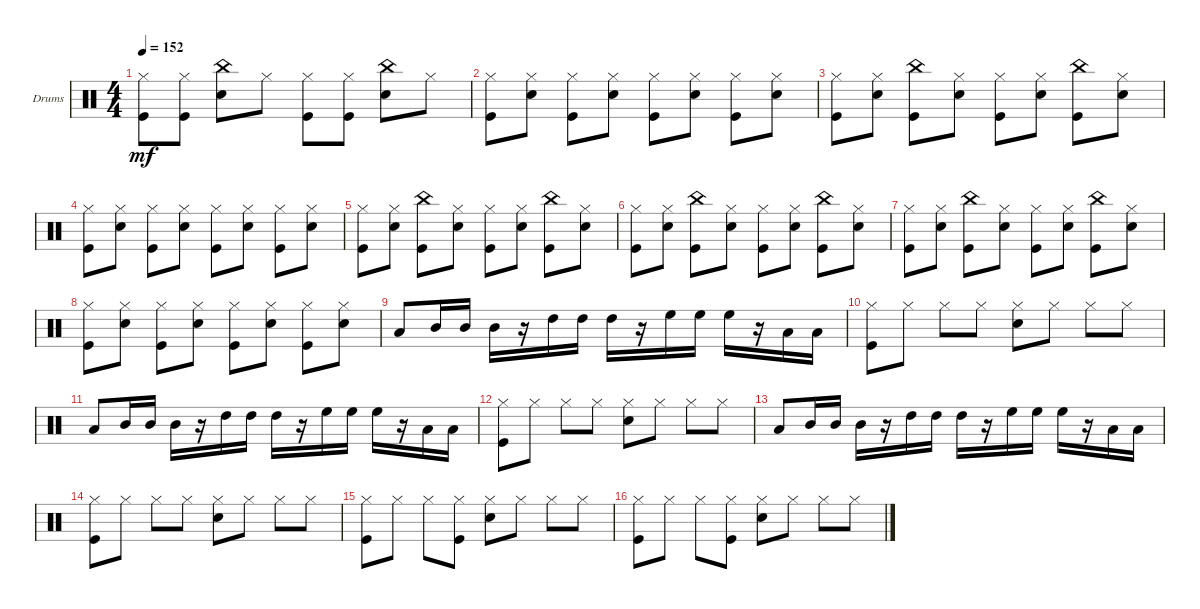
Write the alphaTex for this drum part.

\defaultSystemsLayout 4
\bracketExtendMode groupsimilarinstruments
\firstSystemTrackNameOrientation horizontal
\otherSystemsTrackNameOrientation horizontal
\track ("Drumkit" "Drums") {instrument percussion}
\staff {score}
\articulation defaults
\ts (4 4)
\tempo 152
\clef neutral
\ks c
("Kick (hit)" "Hi-Hat (closed)").8{dy mf} ("Hi-Hat (closed)" "Kick (hit)").8 ("Snare (hit) 2" "China (hit)").8 "Hi-Hat (closed)".8 ("Hi-Hat (closed)" "Kick (hit)").8 ("Hi-Hat (closed)" "Kick (hit)").8 ("Snare (hit) 2" "China (hit)").8 "Hi-Hat (closed)".8 |
("Kick (hit)" "Hi-Hat (closed)").8 ("Snare (hit) 2" "Hi-Hat (closed)").8 ("Hi-Hat (closed)" "Kick (hit)").8 ("Hi-Hat (closed)" "Snare (hit) 2").8 ("Hi-Hat (closed)" "Kick (hit)").8 ("Hi-Hat (closed)" "Snare (hit) 2").8 ("Hi-Hat (closed)" "Kick (hit)").8 ("Hi-Hat (closed)" "Snare (hit) 2").8 |
("Kick (hit)" "Hi-Hat (closed)").8 ("Snare (hit) 2" "Hi-Hat (closed)").8 ("Kick (hit)" "China (hit)").8 ("Hi-Hat (closed)" "Snare (hit) 2").8 ("Hi-Hat (closed)" "Kick (hit)").8 ("Hi-Hat (closed)" "Snare (hit) 2").8 ("Kick (hit)" "China (hit)").8 ("Hi-Hat (closed)" "Snare (hit) 2").8 |
("Kick (hit)" "Hi-Hat (closed)").8 ("Snare (hit) 2" "Hi-Hat (closed)").8 ("Hi-Hat (closed)" "Kick (hit)").8 ("Hi-Hat (closed)" "Snare (hit) 2").8 ("Hi-Hat (closed)" "Kick (hit)").8 ("Hi-Hat (closed)" "Snare (hit) 2").8 ("Hi-Hat (closed)" "Kick (hit)").8 ("Hi-Hat (closed)" "Snare (hit) 2").8 |
("Kick (hit)" "Hi-Hat (closed)").8 ("Snare (hit) 2" "Hi-Hat (closed)").8 ("Kick (hit)" "China (hit)").8 ("Hi-Hat (closed)" "Snare (hit) 2").8 ("Hi-Hat (closed)" "Kick (hit)").8 ("Hi-Hat (closed)" "Snare (hit) 2").8 ("Kick (hit)" "China (hit)").8 ("Hi-Hat (closed)" "Snare (hit) 2").8 |
("Kick (hit)" "Hi-Hat (closed)").8 ("Snare (hit) 2" "Hi-Hat (closed)").8 ("Kick (hit)" "China (hit)").8 ("Hi-Hat (closed)" "Snare (hit) 2").8 ("Hi-Hat (closed)" "Kick (hit)").8 ("Hi-Hat (closed)" "Snare (hit) 2").8 ("Kick (hit)" "China (hit)").8 ("Hi-Hat (closed)" "Snare (hit) 2").8 |
("Kick (hit)" "Hi-Hat (closed)").8 ("Snare (hit) 2" "Hi-Hat (closed)").8 ("Kick (hit)" "China (hit)").8 ("Hi-Hat (closed)" "Snare (hit) 2").8 ("Hi-Hat (closed)" "Kick (hit)").8 ("Hi-Hat (closed)" "Snare (hit) 2").8 ("Kick (hit)" "China (hit)").8 ("Hi-Hat (closed)" "Snare (hit) 2").8 |
("Kick (hit)" "Hi-Hat (closed)").8 ("Snare (hit) 2" "Hi-Hat (closed)").8 ("Hi-Hat (closed)" "Kick (hit)").8 ("Hi-Hat (closed)" "Snare (hit) 2").8 ("Hi-Hat (closed)" "Kick (hit)").8 ("Hi-Hat (closed)" "Snare (hit) 2").8 ("Hi-Hat (closed)" "Kick (hit)").8 ("Hi-Hat (closed)" "Snare (hit) 2").8 |
"Low Tom (hit)".8 "Mid Tom (hit)".16 "Mid Tom (hit)".16 "Mid Tom (hit)".16 r.16 "High Tom (hit)".16 "High Tom (hit)".16 "High Tom (hit)".16 r.16 "High Floor Tom (hit)".16 "High Floor Tom (hit)".16 "High Floor Tom (hit)".16 r.16 "Low Tom (hit)".16 "Low Tom (hit)".16 |
("Kick (hit)" "Hi-Hat (closed)").8 "Hi-Hat (closed)".8 "Hi-Hat (closed)".8 "Hi-Hat (closed)".8 ("Hi-Hat (closed)" "Snare (hit) 2").8 "Hi-Hat (closed)".8 "Hi-Hat (closed)".8 "Hi-Hat (closed)".8 |
"Low Tom (hit)".8 "Mid Tom (hit)".16 "Mid Tom (hit)".16 "Mid Tom (hit)".16 r.16 "High Tom (hit)".16 "High Tom (hit)".16 "High Tom (hit)".16 r.16 "High Floor Tom (hit)".16 "High Floor Tom (hit)".16 "High Floor Tom (hit)".16 r.16 "Low Tom (hit)".16 "Low Tom (hit)".16 |
("Kick (hit)" "Hi-Hat (closed)").8 "Hi-Hat (closed)".8 "Hi-Hat (closed)".8 "Hi-Hat (closed)".8 ("Hi-Hat (closed)" "Snare (hit) 2").8 "Hi-Hat (closed)".8 "Hi-Hat (closed)".8 "Hi-Hat (closed)".8 |
"Low Tom (hit)".8 "Mid Tom (hit)".16 "Mid Tom (hit)".16 "Mid Tom (hit)".16 r.16 "High Tom (hit)".16 "High Tom (hit)".16 "High Tom (hit)".16 r.16 "High Floor Tom (hit)".16 "High Floor Tom (hit)".16 "High Floor Tom (hit)".16 r.16 "Low Tom (hit)".16 "Low Tom (hit)".16 |
("Kick (hit)" "Hi-Hat (closed)").8 "Hi-Hat (closed)".8 "Hi-Hat (closed)".8 "Hi-Hat (closed)".8 ("Hi-Hat (closed)" "Snare (hit) 2").8 "Hi-Hat (closed)".8 "Hi-Hat (closed)".8 "Hi-Hat (closed)".8 |
("Kick (hit)" "Hi-Hat (closed)").8 "Hi-Hat (closed)".8 "Hi-Hat (closed)".8 ("Hi-Hat (closed)" "Kick (hit)").8 ("Hi-Hat (closed)" "Snare (hit) 2").8 "Hi-Hat (closed)".8 "Hi-Hat (closed)".8 "Hi-Hat (closed)".8 |
("Kick (hit)" "Hi-Hat (closed)").8 "Hi-Hat (closed)".8 "Hi-Hat (closed)".8 ("Hi-Hat (closed)" "Kick (hit)").8 ("Hi-Hat (closed)" "Snare (hit) 2").8 "Hi-Hat (closed)".8 "Hi-Hat (closed)".8 "Hi-Hat (closed)".8
